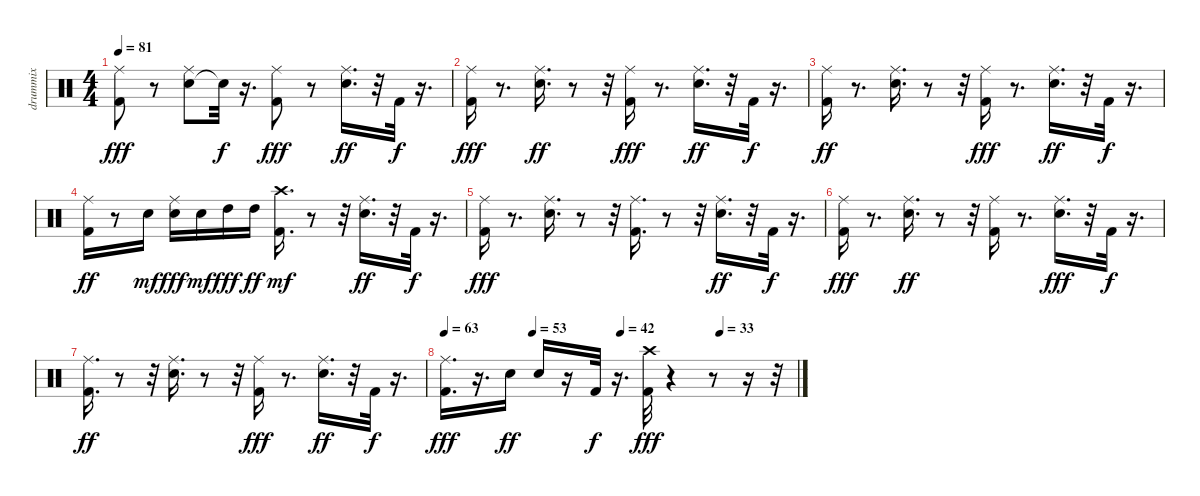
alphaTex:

\track ("drummix " "drummix ") {instrument percussion}
\staff {score}
\articulation defaults
\ts (4 4)
\tempo 81
\clef neutral
\ks c
("Kick (hit) 2" "Ride (middle)").8{dy fff} r.8 ("Snare (hit) 2" "Ride (middle)").8 "Snare (hit)"{t}.32{dy f} r.16{d} ("Kick (hit) 2" "Ride (middle)").8{dy fff} r.8 ("Snare (hit) 2" "Ride (middle)").16{d dy ff} r.32 "Kick (hit) 2".32{dy f} r.16{d} |
("Kick (hit) 2" "Ride (middle)").16{dy fff} r.8{d} ("Snare (hit) 2" "Ride (middle)").16{d dy ff} r.8 r.32 ("Kick (hit) 2" "Ride (middle)").16{dy fff} r.8{d} ("Snare (hit) 2" "Ride (middle)").16{d dy ff} r.32 "Kick (hit) 2".32{dy f} r.16{d} |
("Kick (hit) 2" "Ride (middle)").16{dy ff} r.8{d} ("Snare (hit) 2" "Ride (middle)").16{d} r.8 r.32 ("Kick (hit) 2" "Ride (middle)").16{dy fff} r.8{d} ("Snare (hit) 2" "Ride (middle)").16{d dy ff} r.32 "Kick (hit) 2".32{dy f} r.16{d} |
("Kick (hit) 2" "Ride (middle)").16{dy ff} r.8 "Snare (hit) 2".16{dy mf} ("Snare (hit) 2" "Ride (middle)").16{dy fff} "Snare (hit) 2".16{dy mf} "High Tom (hit)".16{dy fff} "High Tom (hit)".16{dy ff} ("Kick (hit) 2" "Crash high (hit)").16{d dy mf} r.8 r.32 ("Snare (hit) 2" "Ride (middle)").16{d dy ff} r.32 "Kick (hit) 2".32{dy f} r.16{d} |
("Kick (hit) 2" "Ride (middle)").16{dy fff} r.8{d} ("Snare (hit) 2" "Ride (middle)").16{d} r.8 r.32 ("Kick (hit) 2" "Ride (middle)").16{d} r.8 r.32 ("Snare (hit) 2" "Ride (middle)").16{d dy ff} r.32 "Kick (hit) 2".32{dy f} r.16{d} |
("Kick (hit) 2" "Ride (middle)").16{dy fff} r.8{d} ("Snare (hit) 2" "Ride (middle)").16{d dy ff} r.8 r.32 ("Kick (hit) 2" "Ride (middle)").16 r.8{d} ("Snare (hit) 2" "Ride (middle)").16{d dy fff} r.32 "Kick (hit) 2".32{dy f} r.16{d} |
("Kick (hit) 2" "Ride (middle)").16{d dy ff} r.8 r.32 ("Snare (hit) 2" "Ride (middle)").16{d} r.8 r.32 ("Kick (hit) 2" "Ride (middle)").16{dy fff} r.8{d} ("Snare (hit) 2" "Ride (middle)").16{d dy ff} r.32 "Kick (hit) 2".32{dy f} r.16{d} |
\tempo 63
\tempo (53 0.25)
\tempo (42 0.5)
\tempo (33 0.78125)
("Kick (hit) 2" "Ride (middle)").16{d dy fff} r.16{d} "Snare (hit) 2".16{dy ff} "Snare (hit) 2".16 r.16 "Kick (hit) 2".32{dy f} r.16{d} ("Kick (hit) 2" "Crash high (hit)").32{dy fff} r.4 r.8 r.16 r.32
